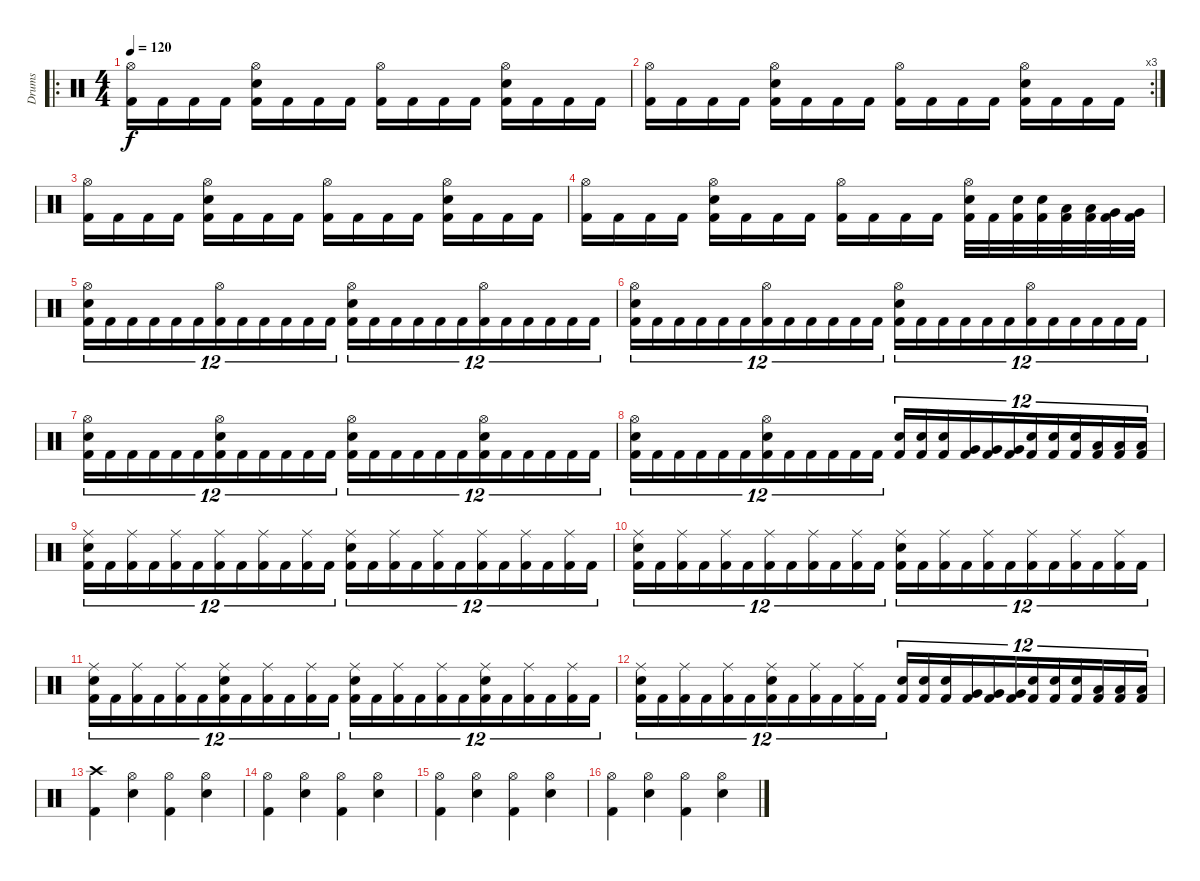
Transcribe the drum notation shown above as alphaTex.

\track ("Drums" "Drums") {instrument percussion}
\staff {score}
\articulation defaults
\ro
\ts (4 4)
\tempo 120
\clef neutral
\ks c
("Hi-Hat (open)" "Kick (hit) 2").16{dy f} "Kick (hit) 2".16 "Kick (hit) 2".16 "Kick (hit) 2".16 ("Hi-Hat (open)" "Electric Snare (hit)" "Kick (hit) 2").16 "Kick (hit) 2".16 "Kick (hit) 2".16 "Kick (hit) 2".16 ("Hi-Hat (open)" "Kick (hit) 2").16 "Kick (hit) 2".16 "Kick (hit) 2".16 "Kick (hit) 2".16 ("Hi-Hat (open)" "Electric Snare (hit)" "Kick (hit) 2").16 "Kick (hit) 2".16 "Kick (hit) 2".16 "Kick (hit) 2".16 |
\rc 3
("Hi-Hat (open)" "Kick (hit) 2").16 "Kick (hit) 2".16 "Kick (hit) 2".16 "Kick (hit) 2".16 ("Hi-Hat (open)" "Electric Snare (hit)" "Kick (hit) 2").16 "Kick (hit) 2".16 "Kick (hit) 2".16 "Kick (hit) 2".16 ("Hi-Hat (open)" "Kick (hit) 2").16 "Kick (hit) 2".16 "Kick (hit) 2".16 "Kick (hit) 2".16 ("Hi-Hat (open)" "Electric Snare (hit)" "Kick (hit) 2").16 "Kick (hit) 2".16 "Kick (hit) 2".16 "Kick (hit) 2".16 |
("Hi-Hat (open)" "Kick (hit) 2").16 "Kick (hit) 2".16 "Kick (hit) 2".16 "Kick (hit) 2".16 ("Hi-Hat (open)" "Electric Snare (hit)" "Kick (hit) 2").16 "Kick (hit) 2".16 "Kick (hit) 2".16 "Kick (hit) 2".16 ("Hi-Hat (open)" "Kick (hit) 2").16 "Kick (hit) 2".16 "Kick (hit) 2".16 "Kick (hit) 2".16 ("Hi-Hat (open)" "Electric Snare (hit)" "Kick (hit) 2").16 "Kick (hit) 2".16 "Kick (hit) 2".16 "Kick (hit) 2".16 |
("Hi-Hat (open)" "Kick (hit) 2").16 "Kick (hit) 2".16 "Kick (hit) 2".16 "Kick (hit) 2".16 ("Hi-Hat (open)" "Electric Snare (hit)" "Kick (hit) 2").16 "Kick (hit) 2".16 "Kick (hit) 2".16 "Kick (hit) 2".16 ("Hi-Hat (open)" "Kick (hit) 2").16 "Kick (hit) 2".16 "Kick (hit) 2".16 "Kick (hit) 2".16 ("Hi-Hat (open)" "Electric Snare (hit)" "Kick (hit) 2").32 "Kick (hit) 2".32 ("Electric Snare (hit)" "Kick (hit) 2").32 ("Electric Snare (hit)" "Kick (hit) 2").32 ("Low Floor Tom (hit)" "Kick (hit) 2").32 ("Low Floor Tom (hit)" "Kick (hit) 2").32 ("Very Low Tom (hit)" "Kick (hit) 2").32 ("Very Low Tom (hit)" "Kick (hit) 2").32 |
("Hi-Hat (open)" "Electric Snare (hit)" "Kick (hit) 2").16{tu (12 8)} "Kick (hit) 2".16{tu (12 8)} "Kick (hit) 2".16{tu (12 8)} "Kick (hit) 2".16{tu (12 8)} "Kick (hit) 2".16{tu (12 8)} "Kick (hit) 2".16{tu (12 8)} ("Hi-Hat (open)" "Kick (hit) 2").16{tu (12 8)} "Kick (hit) 2".16{tu (12 8)} "Kick (hit) 2".16{tu (12 8)} "Kick (hit) 2".16{tu (12 8)} "Kick (hit) 2".16{tu (12 8)} "Kick (hit) 2".16{tu (12 8)} ("Hi-Hat (open)" "Electric Snare (hit)" "Kick (hit) 2").16{tu (12 8)} "Kick (hit) 2".16{tu (12 8)} "Kick (hit) 2".16{tu (12 8)} "Kick (hit) 2".16{tu (12 8)} "Kick (hit) 2".16{tu (12 8)} "Kick (hit) 2".16{tu (12 8)} ("Hi-Hat (open)" "Kick (hit) 2").16{tu (12 8)} "Kick (hit) 2".16{tu (12 8)} "Kick (hit) 2".16{tu (12 8)} "Kick (hit) 2".16{tu (12 8)} "Kick (hit) 2".16{tu (12 8)} "Kick (hit) 2".16{tu (12 8)} |
("Hi-Hat (open)" "Electric Snare (hit)" "Kick (hit) 2").16{tu (12 8)} "Kick (hit) 2".16{tu (12 8)} "Kick (hit) 2".16{tu (12 8)} "Kick (hit) 2".16{tu (12 8)} "Kick (hit) 2".16{tu (12 8)} "Kick (hit) 2".16{tu (12 8)} ("Hi-Hat (open)" "Kick (hit) 2").16{tu (12 8)} "Kick (hit) 2".16{tu (12 8)} "Kick (hit) 2".16{tu (12 8)} "Kick (hit) 2".16{tu (12 8)} "Kick (hit) 2".16{tu (12 8)} "Kick (hit) 2".16{tu (12 8)} ("Hi-Hat (open)" "Electric Snare (hit)" "Kick (hit) 2").16{tu (12 8)} "Kick (hit) 2".16{tu (12 8)} "Kick (hit) 2".16{tu (12 8)} "Kick (hit) 2".16{tu (12 8)} "Kick (hit) 2".16{tu (12 8)} "Kick (hit) 2".16{tu (12 8)} ("Hi-Hat (open)" "Kick (hit) 2").16{tu (12 8)} "Kick (hit) 2".16{tu (12 8)} "Kick (hit) 2".16{tu (12 8)} "Kick (hit) 2".16{tu (12 8)} "Kick (hit) 2".16{tu (12 8)} "Kick (hit) 2".16{tu (12 8)} |
("Hi-Hat (open)" "Electric Snare (hit)" "Kick (hit) 2").16{tu (12 8)} "Kick (hit) 2".16{tu (12 8)} "Kick (hit) 2".16{tu (12 8)} "Kick (hit) 2".16{tu (12 8)} "Kick (hit) 2".16{tu (12 8)} "Kick (hit) 2".16{tu (12 8)} ("Hi-Hat (open)" "Electric Snare (hit)" "Kick (hit) 2").16{tu (12 8)} "Kick (hit) 2".16{tu (12 8)} "Kick (hit) 2".16{tu (12 8)} "Kick (hit) 2".16{tu (12 8)} "Kick (hit) 2".16{tu (12 8)} "Kick (hit) 2".16{tu (12 8)} ("Hi-Hat (open)" "Electric Snare (hit)" "Kick (hit) 2").16{tu (12 8)} "Kick (hit) 2".16{tu (12 8)} "Kick (hit) 2".16{tu (12 8)} "Kick (hit) 2".16{tu (12 8)} "Kick (hit) 2".16{tu (12 8)} "Kick (hit) 2".16{tu (12 8)} ("Hi-Hat (open)" "Electric Snare (hit)" "Kick (hit) 2").16{tu (12 8)} "Kick (hit) 2".16{tu (12 8)} "Kick (hit) 2".16{tu (12 8)} "Kick (hit) 2".16{tu (12 8)} "Kick (hit) 2".16{tu (12 8)} "Kick (hit) 2".16{tu (12 8)} |
("Hi-Hat (open)" "Electric Snare (hit)" "Kick (hit) 2").16{tu (12 8)} "Kick (hit) 2".16{tu (12 8)} "Kick (hit) 2".16{tu (12 8)} "Kick (hit) 2".16{tu (12 8)} "Kick (hit) 2".16{tu (12 8)} "Kick (hit) 2".16{tu (12 8)} ("Hi-Hat (open)" "Electric Snare (hit)" "Kick (hit) 2").16{tu (12 8)} "Kick (hit) 2".16{tu (12 8)} "Kick (hit) 2".16{tu (12 8)} "Kick (hit) 2".16{tu (12 8)} "Kick (hit) 2".16{tu (12 8)} "Kick (hit) 2".16{tu (12 8)} ("Electric Snare (hit)" "Kick (hit) 2").16{tu (12 8)} ("Electric Snare (hit)" "Kick (hit) 2").16{tu (12 8)} ("Electric Snare (hit)" "Kick (hit) 2").16{tu (12 8)} ("Very Low Tom (hit)" "Kick (hit) 2").16{tu (12 8)} ("Very Low Tom (hit)" "Kick (hit) 2").16{tu (12 8)} ("Very Low Tom (hit)" "Kick (hit) 2").16{tu (12 8)} ("Electric Snare (hit)" "Kick (hit) 2").16{tu (12 8)} ("Electric Snare (hit)" "Kick (hit) 2").16{tu (12 8)} ("Electric Snare (hit)" "Kick (hit) 2").16{tu (12 8)} ("Low Floor Tom (hit)" "Kick (hit) 2").16{tu (12 8)} ("Low Floor Tom (hit)" "Kick (hit) 2").16{tu (12 8)} ("Low Floor Tom (hit)" "Kick (hit) 2").16{tu (12 8)} |
("Ride (middle)" "Electric Snare (hit)" "Kick (hit) 2").16{tu (12 8)} "Kick (hit) 2".16{tu (12 8)} ("Ride (middle)" "Kick (hit) 2").16{tu (12 8)} "Kick (hit) 2".16{tu (12 8)} ("Ride (middle)" "Kick (hit) 2").16{tu (12 8)} "Kick (hit) 2".16{tu (12 8)} ("Ride (middle)" "Kick (hit) 2").16{tu (12 8)} "Kick (hit) 2".16{tu (12 8)} ("Ride (middle)" "Kick (hit) 2").16{tu (12 8)} "Kick (hit) 2".16{tu (12 8)} ("Ride (middle)" "Kick (hit) 2").16{tu (12 8)} "Kick (hit) 2".16{tu (12 8)} ("Ride (middle)" "Electric Snare (hit)" "Kick (hit) 2").16{tu (12 8)} "Kick (hit) 2".16{tu (12 8)} ("Ride (middle)" "Kick (hit) 2").16{tu (12 8)} "Kick (hit) 2".16{tu (12 8)} ("Ride (middle)" "Kick (hit) 2").16{tu (12 8)} "Kick (hit) 2".16{tu (12 8)} ("Ride (middle)" "Kick (hit) 2").16{tu (12 8)} "Kick (hit) 2".16{tu (12 8)} ("Ride (middle)" "Kick (hit) 2").16{tu (12 8)} "Kick (hit) 2".16{tu (12 8)} ("Ride (middle)" "Kick (hit) 2").16{tu (12 8)} "Kick (hit) 2".16{tu (12 8)} |
("Ride (middle)" "Electric Snare (hit)" "Kick (hit) 2").16{tu (12 8)} "Kick (hit) 2".16{tu (12 8)} ("Ride (middle)" "Kick (hit) 2").16{tu (12 8)} "Kick (hit) 2".16{tu (12 8)} ("Ride (middle)" "Kick (hit) 2").16{tu (12 8)} "Kick (hit) 2".16{tu (12 8)} ("Ride (middle)" "Kick (hit) 2").16{tu (12 8)} "Kick (hit) 2".16{tu (12 8)} ("Ride (middle)" "Kick (hit) 2").16{tu (12 8)} "Kick (hit) 2".16{tu (12 8)} ("Ride (middle)" "Kick (hit) 2").16{tu (12 8)} "Kick (hit) 2".16{tu (12 8)} ("Ride (middle)" "Electric Snare (hit)" "Kick (hit) 2").16{tu (12 8)} "Kick (hit) 2".16{tu (12 8)} ("Ride (middle)" "Kick (hit) 2").16{tu (12 8)} "Kick (hit) 2".16{tu (12 8)} ("Ride (middle)" "Kick (hit) 2").16{tu (12 8)} "Kick (hit) 2".16{tu (12 8)} ("Ride (middle)" "Kick (hit) 2").16{tu (12 8)} "Kick (hit) 2".16{tu (12 8)} ("Ride (middle)" "Kick (hit) 2").16{tu (12 8)} "Kick (hit) 2".16{tu (12 8)} ("Ride (middle)" "Kick (hit) 2").16{tu (12 8)} "Kick (hit) 2".16{tu (12 8)} |
("Ride (middle)" "Electric Snare (hit)" "Kick (hit) 2").16{tu (12 8)} "Kick (hit) 2".16{tu (12 8)} ("Ride (middle)" "Kick (hit) 2").16{tu (12 8)} "Kick (hit) 2".16{tu (12 8)} ("Ride (middle)" "Kick (hit) 2").16{tu (12 8)} "Kick (hit) 2".16{tu (12 8)} ("Ride (middle)" "Electric Snare (hit)" "Kick (hit) 2").16{tu (12 8)} "Kick (hit) 2".16{tu (12 8)} ("Ride (middle)" "Kick (hit) 2").16{tu (12 8)} "Kick (hit) 2".16{tu (12 8)} ("Ride (middle)" "Kick (hit) 2").16{tu (12 8)} "Kick (hit) 2".16{tu (12 8)} ("Ride (middle)" "Electric Snare (hit)" "Kick (hit) 2").16{tu (12 8)} "Kick (hit) 2".16{tu (12 8)} ("Ride (middle)" "Kick (hit) 2").16{tu (12 8)} "Kick (hit) 2".16{tu (12 8)} ("Ride (middle)" "Kick (hit) 2").16{tu (12 8)} "Kick (hit) 2".16{tu (12 8)} ("Ride (middle)" "Electric Snare (hit)" "Kick (hit) 2").16{tu (12 8)} "Kick (hit) 2".16{tu (12 8)} ("Ride (middle)" "Kick (hit) 2").16{tu (12 8)} "Kick (hit) 2".16{tu (12 8)} ("Ride (middle)" "Kick (hit) 2").16{tu (12 8)} "Kick (hit) 2".16{tu (12 8)} |
("Ride (middle)" "Electric Snare (hit)" "Kick (hit) 2").16{tu (12 8)} "Kick (hit) 2".16{tu (12 8)} ("Ride (middle)" "Kick (hit) 2").16{tu (12 8)} "Kick (hit) 2".16{tu (12 8)} ("Ride (middle)" "Kick (hit) 2").16{tu (12 8)} "Kick (hit) 2".16{tu (12 8)} ("Ride (middle)" "Electric Snare (hit)" "Kick (hit) 2").16{tu (12 8)} "Kick (hit) 2".16{tu (12 8)} ("Ride (middle)" "Kick (hit) 2").16{tu (12 8)} "Kick (hit) 2".16{tu (12 8)} ("Ride (middle)" "Kick (hit) 2").16{tu (12 8)} "Kick (hit) 2".16{tu (12 8)} ("Electric Snare (hit)" "Kick (hit) 2").16{tu (12 8)} ("Electric Snare (hit)" "Kick (hit) 2").16{tu (12 8)} ("Electric Snare (hit)" "Kick (hit) 2").16{tu (12 8)} ("Very Low Tom (hit)" "Kick (hit) 2").16{tu (12 8)} ("Very Low Tom (hit)" "Kick (hit) 2").16{tu (12 8)} ("Very Low Tom (hit)" "Kick (hit) 2").16{tu (12 8)} ("Electric Snare (hit)" "Kick (hit) 2").16{tu (12 8)} ("Electric Snare (hit)" "Kick (hit) 2").16{tu (12 8)} ("Electric Snare (hit)" "Kick (hit) 2").16{tu (12 8)} ("Low Floor Tom (hit)" "Kick (hit) 2").16{tu (12 8)} ("Low Floor Tom (hit)" "Kick (hit) 2").16{tu (12 8)} ("Low Floor Tom (hit)" "Kick (hit) 2").16{tu (12 8)} |
("Crash high (hit)" "Kick (hit) 2").4 ("Hi-Hat (open)" "Electric Snare (hit)").4 ("Hi-Hat (open)" "Kick (hit) 2").4 ("Hi-Hat (open)" "Electric Snare (hit)").4 |
("Hi-Hat (open)" "Kick (hit) 2").4 ("Hi-Hat (open)" "Electric Snare (hit)").4 ("Hi-Hat (open)" "Kick (hit) 2").4 ("Hi-Hat (open)" "Electric Snare (hit)").4 |
("Hi-Hat (open)" "Kick (hit) 2").4 ("Hi-Hat (open)" "Electric Snare (hit)").4 ("Hi-Hat (open)" "Kick (hit) 2").4 ("Hi-Hat (open)" "Electric Snare (hit)").4 |
("Hi-Hat (open)" "Kick (hit) 2").4 ("Hi-Hat (open)" "Electric Snare (hit)").4 ("Hi-Hat (open)" "Kick (hit) 2").4 ("Hi-Hat (open)" "Electric Snare (hit)").4
